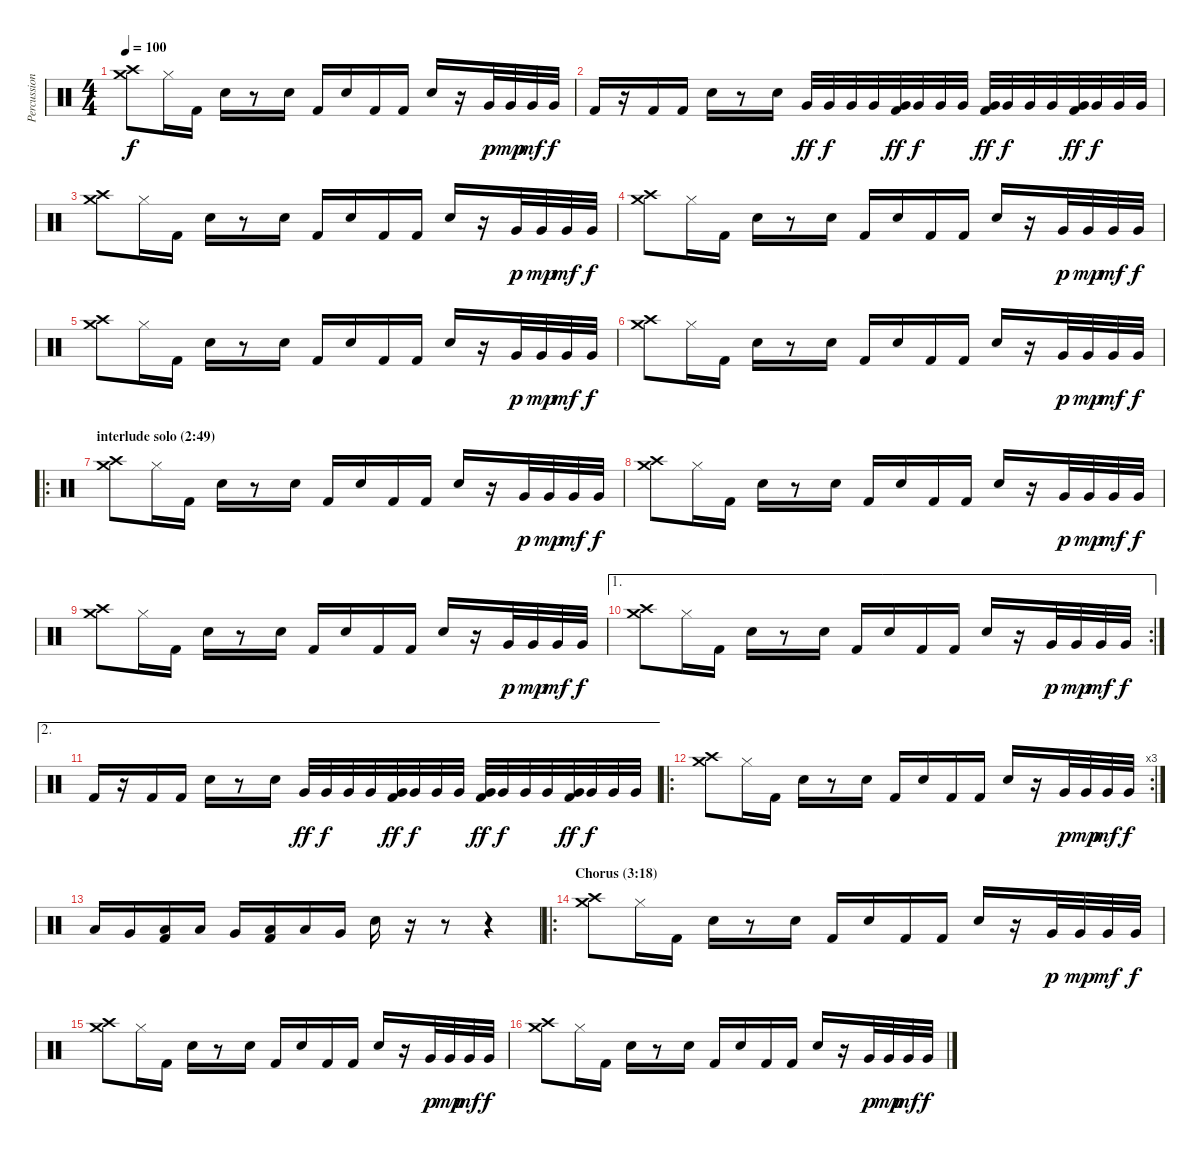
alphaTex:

\track ("Percussion (Matt)" "Percussion") {instrument percussion}
\staff {score}
\articulation defaults
\ts (4 4)
\tempo 100
\clef neutral
\ks c
("Crash high (hit)" "Crash medium (hit)").8{dy f} "Hi-Hat (closed)".16 "Kick (hit) 2".16 "Snare (hit) 2".16 r.8 "Snare (hit) 2".16 "Kick (hit) 2".16 "Snare (hit) 2".16 "Kick (hit) 2".16 "Kick (hit) 2".16 "Snare (hit) 2".16 r.16 "Very Low Tom (hit)".32{dy p} "Very Low Tom (hit)".32{dy mp} "Very Low Tom (hit)".32{dy mf} "Very Low Tom (hit)".32{dy f} |
"Kick (hit) 2".16 r.16 "Kick (hit) 2".16 "Kick (hit) 2".16 "Snare (hit) 2".16 r.8 "Snare (hit) 2".16 "Very Low Tom (hit)".32{dy ff} "Very Low Tom (hit)".32{dy f} "Very Low Tom (hit)".32 "Very Low Tom (hit)".32 ("Very Low Tom (hit)" "Kick (hit) 2").32{dy ff} "Very Low Tom (hit)".32{dy f} "Very Low Tom (hit)".32 "Very Low Tom (hit)".32 ("Very Low Tom (hit)" "Kick (hit) 2").32{dy ff} "Very Low Tom (hit)".32{dy f} "Very Low Tom (hit)".32 "Very Low Tom (hit)".32 ("Very Low Tom (hit)" "Kick (hit) 2").32{dy ff} "Very Low Tom (hit)".32{dy f} "Very Low Tom (hit)".32 "Very Low Tom (hit)".32 |
("Crash high (hit)" "Crash medium (hit)").8 "Hi-Hat (closed)".16 "Kick (hit) 2".16 "Snare (hit) 2".16 r.8 "Snare (hit) 2".16 "Kick (hit) 2".16 "Snare (hit) 2".16 "Kick (hit) 2".16 "Kick (hit) 2".16 "Snare (hit) 2".16 r.16 "Very Low Tom (hit)".32{dy p} "Very Low Tom (hit)".32{dy mp} "Very Low Tom (hit)".32{dy mf} "Very Low Tom (hit)".32{dy f} |
("Crash high (hit)" "Crash medium (hit)").8 "Hi-Hat (closed)".16 "Kick (hit) 2".16 "Snare (hit) 2".16 r.8 "Snare (hit) 2".16 "Kick (hit) 2".16 "Snare (hit) 2".16 "Kick (hit) 2".16 "Kick (hit) 2".16 "Snare (hit) 2".16 r.16 "Very Low Tom (hit)".32{dy p} "Very Low Tom (hit)".32{dy mp} "Very Low Tom (hit)".32{dy mf} "Very Low Tom (hit)".32{dy f} |
("Crash high (hit)" "Crash medium (hit)").8 "Hi-Hat (closed)".16 "Kick (hit) 2".16 "Snare (hit) 2".16 r.8 "Snare (hit) 2".16 "Kick (hit) 2".16 "Snare (hit) 2".16 "Kick (hit) 2".16 "Kick (hit) 2".16 "Snare (hit) 2".16 r.16 "Very Low Tom (hit)".32{dy p} "Very Low Tom (hit)".32{dy mp} "Very Low Tom (hit)".32{dy mf} "Very Low Tom (hit)".32{dy f} |
("Crash high (hit)" "Crash medium (hit)").8 "Hi-Hat (closed)".16 "Kick (hit) 2".16 "Snare (hit) 2".16 r.8 "Snare (hit) 2".16 "Kick (hit) 2".16 "Snare (hit) 2".16 "Kick (hit) 2".16 "Kick (hit) 2".16 "Snare (hit) 2".16 r.16 "Very Low Tom (hit)".32{dy p} "Very Low Tom (hit)".32{dy mp} "Very Low Tom (hit)".32{dy mf} "Very Low Tom (hit)".32{dy f} |
\ro
\section ("" "interlude solo (2:49)")
("Crash high (hit)" "Crash medium (hit)").8 "Hi-Hat (closed)".16 "Kick (hit) 2".16 "Snare (hit) 2".16 r.8 "Snare (hit) 2".16 "Kick (hit) 2".16 "Snare (hit) 2".16 "Kick (hit) 2".16 "Kick (hit) 2".16 "Snare (hit) 2".16 r.16 "Very Low Tom (hit)".32{dy p} "Very Low Tom (hit)".32{dy mp} "Very Low Tom (hit)".32{dy mf} "Very Low Tom (hit)".32{dy f} |
("Crash high (hit)" "Crash medium (hit)").8 "Hi-Hat (closed)".16 "Kick (hit) 2".16 "Snare (hit) 2".16 r.8 "Snare (hit) 2".16 "Kick (hit) 2".16 "Snare (hit) 2".16 "Kick (hit) 2".16 "Kick (hit) 2".16 "Snare (hit) 2".16 r.16 "Very Low Tom (hit)".32{dy p} "Very Low Tom (hit)".32{dy mp} "Very Low Tom (hit)".32{dy mf} "Very Low Tom (hit)".32{dy f} |
("Crash high (hit)" "Crash medium (hit)").8 "Hi-Hat (closed)".16 "Kick (hit) 2".16 "Snare (hit) 2".16 r.8 "Snare (hit) 2".16 "Kick (hit) 2".16 "Snare (hit) 2".16 "Kick (hit) 2".16 "Kick (hit) 2".16 "Snare (hit) 2".16 r.16 "Very Low Tom (hit)".32{dy p} "Very Low Tom (hit)".32{dy mp} "Very Low Tom (hit)".32{dy mf} "Very Low Tom (hit)".32{dy f} |
\ae 1
\rc 2
("Crash high (hit)" "Crash medium (hit)").8 "Hi-Hat (closed)".16 "Kick (hit) 2".16 "Snare (hit) 2".16 r.8 "Snare (hit) 2".16 "Kick (hit) 2".16 "Snare (hit) 2".16 "Kick (hit) 2".16 "Kick (hit) 2".16 "Snare (hit) 2".16 r.16 "Very Low Tom (hit)".32{dy p} "Very Low Tom (hit)".32{dy mp} "Very Low Tom (hit)".32{dy mf} "Very Low Tom (hit)".32{dy f} |
\ae 2 "Kick (hit) 2".16
r.16 "Kick (hit) 2".16 "Kick (hit) 2".16 "Snare (hit) 2".16 r.8 "Snare (hit) 2".16 "Very Low Tom (hit)".32{dy ff} "Very Low Tom (hit)".32{dy f} "Very Low Tom (hit)".32 "Very Low Tom (hit)".32 ("Very Low Tom (hit)" "Kick (hit) 2").32{dy ff} "Very Low Tom (hit)".32{dy f} "Very Low Tom (hit)".32 "Very Low Tom (hit)".32 ("Very Low Tom (hit)" "Kick (hit) 2").32{dy ff} "Very Low Tom (hit)".32{dy f} "Very Low Tom (hit)".32 "Very Low Tom (hit)".32 ("Very Low Tom (hit)" "Kick (hit) 2").32{dy ff} "Very Low Tom (hit)".32{dy f} "Very Low Tom (hit)".32 "Very Low Tom (hit)".32 |
\ro
\rc 3
("Crash high (hit)" "Crash medium (hit)").8 "Hi-Hat (closed)".16 "Kick (hit) 2".16 "Snare (hit) 2".16 r.8 "Snare (hit) 2".16 "Kick (hit) 2".16 "Snare (hit) 2".16 "Kick (hit) 2".16 "Kick (hit) 2".16 "Snare (hit) 2".16 r.16 "Very Low Tom (hit)".32{dy p} "Very Low Tom (hit)".32{dy mp} "Very Low Tom (hit)".32{dy mf} "Very Low Tom (hit)".32{dy f} |
"Low Tom (hit)".16 "Very Low Tom (hit)".16 ("Low Floor Tom (hit)" "Kick (hit) 2").16 "Low Tom (hit)".16 "Very Low Tom (hit)".16 ("Low Floor Tom (hit)" "Kick (hit) 2").16 "Low Tom (hit)".16 "Very Low Tom (hit)".16 "Snare (hit) 2".16 r.16 r.8 r.4 |
\ro
\section ("" "Chorus (3:18)")
("Crash high (hit)" "Crash medium (hit)").8 "Hi-Hat (closed)".16 "Kick (hit) 2".16 "Snare (hit) 2".16 r.8 "Snare (hit) 2".16 "Kick (hit) 2".16 "Snare (hit) 2".16 "Kick (hit) 2".16 "Kick (hit) 2".16 "Snare (hit) 2".16 r.16 "Very Low Tom (hit)".32{dy p} "Very Low Tom (hit)".32{dy mp} "Very Low Tom (hit)".32{dy mf} "Very Low Tom (hit)".32{dy f} |
("Crash high (hit)" "Crash medium (hit)").8 "Hi-Hat (closed)".16 "Kick (hit) 2".16 "Snare (hit) 2".16 r.8 "Snare (hit) 2".16 "Kick (hit) 2".16 "Snare (hit) 2".16 "Kick (hit) 2".16 "Kick (hit) 2".16 "Snare (hit) 2".16 r.16 "Very Low Tom (hit)".32{dy p} "Very Low Tom (hit)".32{dy mp} "Very Low Tom (hit)".32{dy mf} "Very Low Tom (hit)".32{dy f} |
("Crash high (hit)" "Crash medium (hit)").8 "Hi-Hat (closed)".16 "Kick (hit) 2".16 "Snare (hit) 2".16 r.8 "Snare (hit) 2".16 "Kick (hit) 2".16 "Snare (hit) 2".16 "Kick (hit) 2".16 "Kick (hit) 2".16 "Snare (hit) 2".16 r.16 "Very Low Tom (hit)".32{dy p} "Very Low Tom (hit)".32{dy mp} "Very Low Tom (hit)".32{dy mf} "Very Low Tom (hit)".32{dy f}
